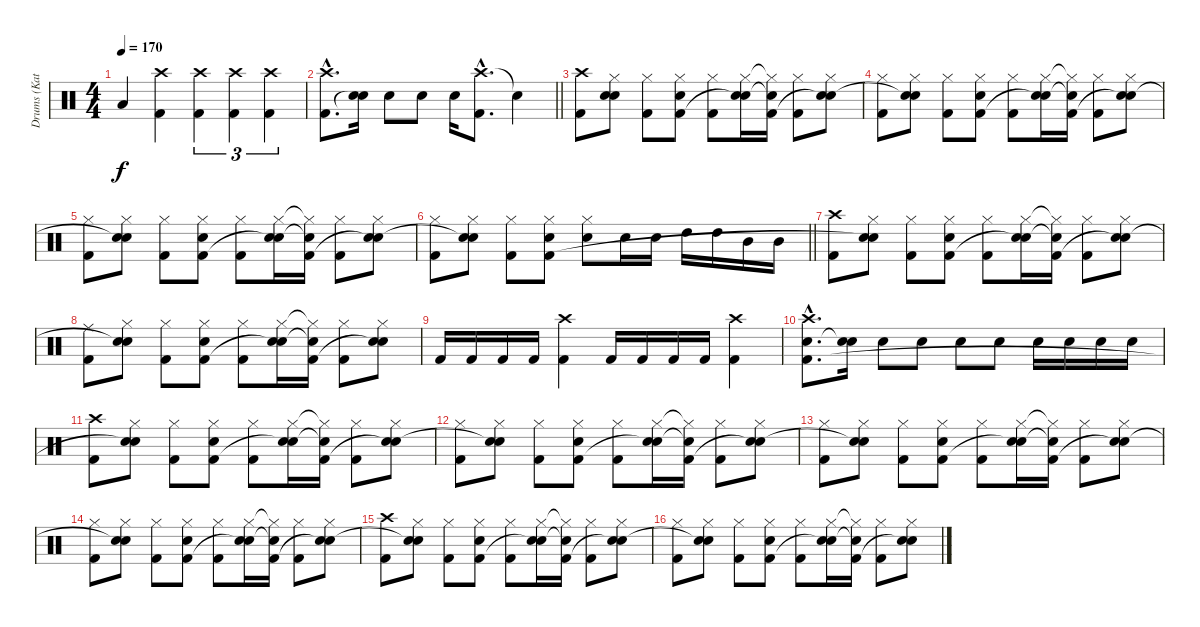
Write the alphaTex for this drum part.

\track ("Drums (Katsuji)" "Drums (Kat") {instrument percussion}
\staff {score}
\articulation defaults
\ts (4 4)
\tempo 170
\clef neutral
\ks c "Low Tom (hit)".4{dy f}
("Crash high (hit)" "Kick (hit) 2").4 ("Crash high (hit)" "Kick (hit) 2").4{tu (3 2)} ("Crash high (hit)" "Kick (hit) 2").4{tu (3 2)} ("Crash high (hit)" "Kick (hit) 2").4{tu (3 2)} |
\barLineRight lightlight
("Crash high (hit)"{hac} "Kick (hit) 2"{hac}).8{d} ("Snare (hit) 2" "Snare (hit)"{t}).16 "Snare (hit) 2".8 "Snare (hit) 2".8 "Snare (hit) 2".16 ("Crash high (hit)"{hac} "Kick (hit) 2"{hac}).8{d} "Snare (hit)"{t}.4 |
("Crash high (hit)" "Kick (hit) 2").8 ("Hi-Hat (closed)" "Snare (hit) 2" "Snare (hit)").8 ("Hi-Hat (closed)" "Kick (hit) 2").8 ("Hi-Hat (closed)" "Snare (hit) 2" "Kick (hit) 2").8 ("Hi-Hat (closed)" "Kick (hit) 2").8 ("Hi-Hat (closed)" "Snare (hit) 2" "Snare (hit)"{t}).16 ("Hi-Hat (closed)"{t} "Snare (hit) 2"{t} "Kick (hit) 2").16 ("Hi-Hat (closed)" "Kick (hit) 2").8 ("Hi-Hat (closed)" "Snare (hit) 2" "Snare (hit)"{t}).8 |
("Hi-Hat (closed)" "Kick (hit) 2").8 ("Hi-Hat (closed)" "Snare (hit) 2" "Snare (hit)"{t}).8 ("Hi-Hat (closed)" "Kick (hit) 2").8 ("Hi-Hat (closed)" "Snare (hit) 2" "Kick (hit) 2").8 ("Hi-Hat (closed)" "Kick (hit) 2").8 ("Hi-Hat (closed)" "Snare (hit) 2" "Snare (hit)"{t}).16 ("Hi-Hat (closed)"{t} "Snare (hit) 2"{t} "Kick (hit) 2").16 ("Hi-Hat (closed)" "Kick (hit) 2").8 ("Hi-Hat (closed)" "Snare (hit) 2" "Snare (hit)"{t}).8 |
("Hi-Hat (closed)" "Kick (hit) 2").8 ("Hi-Hat (closed)" "Snare (hit) 2" "Snare (hit)"{t}).8 ("Hi-Hat (closed)" "Kick (hit) 2").8 ("Hi-Hat (closed)" "Snare (hit) 2" "Kick (hit) 2").8 ("Hi-Hat (closed)" "Kick (hit) 2").8 ("Hi-Hat (closed)" "Snare (hit) 2" "Snare (hit)"{t}).16 ("Hi-Hat (closed)"{t} "Snare (hit) 2"{t} "Kick (hit) 2").16 ("Hi-Hat (closed)" "Kick (hit) 2").8 ("Hi-Hat (closed)" "Snare (hit) 2" "Snare (hit)"{t}).8 |
\barLineRight lightlight
("Hi-Hat (closed)" "Kick (hit) 2").8 ("Hi-Hat (closed)" "Snare (hit) 2" "Snare (hit)"{t}).8 ("Hi-Hat (closed)" "Kick (hit) 2").8 ("Hi-Hat (closed)" "Snare (hit) 2" "Kick (hit) 2").8 ("Hi-Hat (closed)" "Snare (hit) 2").8 "Snare (hit) 2".16 "Snare (hit) 2".16 "High Tom (hit)".16 "High Tom (hit)".16 "Mid Tom (hit)".16 "Mid Tom (hit)".16 |
("Crash high (hit)" "Kick (hit) 2").8 ("Hi-Hat (closed)" "Snare (hit) 2" "Snare (hit)"{t}).8 ("Hi-Hat (closed)" "Kick (hit) 2").8 ("Hi-Hat (closed)" "Snare (hit) 2" "Kick (hit) 2").8 ("Hi-Hat (closed)" "Kick (hit) 2").8 ("Hi-Hat (closed)" "Snare (hit) 2" "Snare (hit)"{t}).16 ("Hi-Hat (closed)"{t} "Snare (hit) 2"{t} "Kick (hit) 2").16 ("Hi-Hat (closed)" "Kick (hit) 2").8 ("Hi-Hat (closed)" "Snare (hit) 2" "Snare (hit)"{t}).8 |
("Ride (middle)" "Kick (hit) 2").8 ("Hi-Hat (closed)" "Snare (hit) 2" "Snare (hit)"{t}).8 ("Hi-Hat (closed)" "Kick (hit) 2").8 ("Hi-Hat (closed)" "Snare (hit) 2" "Kick (hit) 2").8 ("Hi-Hat (closed)" "Kick (hit) 2").8 ("Hi-Hat (closed)" "Snare (hit) 2" "Snare (hit)"{t}).16 ("Hi-Hat (closed)"{t} "Snare (hit) 2"{t} "Kick (hit) 2").16 ("Hi-Hat (closed)" "Kick (hit) 2").8 ("Hi-Hat (closed)" "Snare (hit) 2" "Snare (hit)"{t}).8 |
"Kick (hit) 2".16 "Kick (hit) 2".16 "Kick (hit) 2".16 "Kick (hit) 2".16 ("Crash high (hit)" "Kick (hit) 2").4 "Kick (hit) 2".16 "Kick (hit) 2".16 "Kick (hit) 2".16 "Kick (hit) 2".16 ("Crash high (hit)" "Kick (hit) 2").4 |
("Crash high (hit)"{hac} "Snare (hit) 2"{hac} "Kick (hit) 2"{hac}).8{d} ("Snare (hit) 2" "Snare (hit)"{t}).16 "Snare (hit) 2".8 "Snare (hit) 2".8 "Snare (hit) 2".8 "Snare (hit) 2".8 "Snare (hit) 2".16 "Snare (hit) 2".16 "Snare (hit) 2".16 "Snare (hit) 2".16 |
("Crash high (hit)" "Kick (hit) 2").8 ("Hi-Hat (closed)" "Snare (hit) 2" "Snare (hit)"{t}).8 ("Hi-Hat (closed)" "Kick (hit) 2").8 ("Hi-Hat (closed)" "Snare (hit) 2" "Kick (hit) 2").8 ("Hi-Hat (closed)" "Kick (hit) 2").8 ("Hi-Hat (closed)" "Snare (hit) 2" "Snare (hit)"{t}).16 ("Hi-Hat (closed)"{t} "Snare (hit) 2"{t} "Kick (hit) 2").16 ("Hi-Hat (closed)" "Kick (hit) 2").8 ("Hi-Hat (closed)" "Snare (hit) 2" "Snare (hit)"{t}).8 |
("Hi-Hat (closed)" "Kick (hit) 2").8 ("Hi-Hat (closed)" "Snare (hit) 2" "Snare (hit)"{t}).8 ("Hi-Hat (closed)" "Kick (hit) 2").8 ("Hi-Hat (closed)" "Snare (hit) 2" "Kick (hit) 2").8 ("Hi-Hat (closed)" "Kick (hit) 2").8 ("Hi-Hat (closed)" "Snare (hit) 2" "Snare (hit)"{t}).16 ("Hi-Hat (closed)"{t} "Snare (hit) 2"{t} "Kick (hit) 2").16 ("Hi-Hat (closed)" "Kick (hit) 2").8 ("Hi-Hat (closed)" "Snare (hit) 2" "Snare (hit)"{t}).8 |
("Hi-Hat (closed)" "Kick (hit) 2").8 ("Hi-Hat (closed)" "Snare (hit) 2" "Snare (hit)"{t}).8 ("Hi-Hat (closed)" "Kick (hit) 2").8 ("Hi-Hat (closed)" "Snare (hit) 2" "Kick (hit) 2").8 ("Hi-Hat (closed)" "Kick (hit) 2").8 ("Hi-Hat (closed)" "Snare (hit) 2" "Snare (hit)"{t}).16 ("Hi-Hat (closed)"{t} "Snare (hit) 2"{t} "Kick (hit) 2").16 ("Hi-Hat (closed)" "Kick (hit) 2").8 ("Hi-Hat (closed)" "Snare (hit) 2" "Snare (hit)"{t}).8 |
("Hi-Hat (closed)" "Kick (hit) 2").8 ("Hi-Hat (closed)" "Snare (hit) 2" "Snare (hit)"{t}).8 ("Hi-Hat (closed)" "Kick (hit) 2").8 ("Hi-Hat (closed)" "Snare (hit) 2" "Kick (hit) 2").8 ("Hi-Hat (closed)" "Kick (hit) 2").8 ("Hi-Hat (closed)" "Snare (hit) 2" "Snare (hit)"{t}).16 ("Hi-Hat (closed)"{t} "Snare (hit) 2"{t} "Kick (hit) 2").16 ("Hi-Hat (closed)" "Kick (hit) 2").8 ("Hi-Hat (closed)" "Snare (hit) 2" "Snare (hit)"{t}).8 |
("Crash high (hit)" "Kick (hit) 2").8 ("Hi-Hat (closed)" "Snare (hit) 2" "Snare (hit)"{t}).8 ("Hi-Hat (closed)" "Kick (hit) 2").8 ("Hi-Hat (closed)" "Snare (hit) 2" "Kick (hit) 2").8 ("Hi-Hat (closed)" "Kick (hit) 2").8 ("Hi-Hat (closed)" "Snare (hit) 2" "Snare (hit)"{t}).16 ("Hi-Hat (closed)"{t} "Snare (hit) 2"{t} "Kick (hit) 2").16 ("Hi-Hat (closed)" "Kick (hit) 2").8 ("Hi-Hat (closed)" "Snare (hit) 2" "Snare (hit)"{t}).8 |
("Hi-Hat (closed)" "Kick (hit) 2").8 ("Hi-Hat (closed)" "Snare (hit) 2" "Snare (hit)"{t}).8 ("Hi-Hat (closed)" "Kick (hit) 2").8 ("Hi-Hat (closed)" "Snare (hit) 2" "Kick (hit) 2").8 ("Hi-Hat (closed)" "Kick (hit) 2").8 ("Hi-Hat (closed)" "Snare (hit) 2" "Snare (hit)"{t}).16 ("Hi-Hat (closed)"{t} "Snare (hit) 2"{t} "Kick (hit) 2").16 ("Hi-Hat (closed)" "Kick (hit) 2").8 ("Hi-Hat (closed)" "Snare (hit) 2" "Snare (hit)"{t}).8
